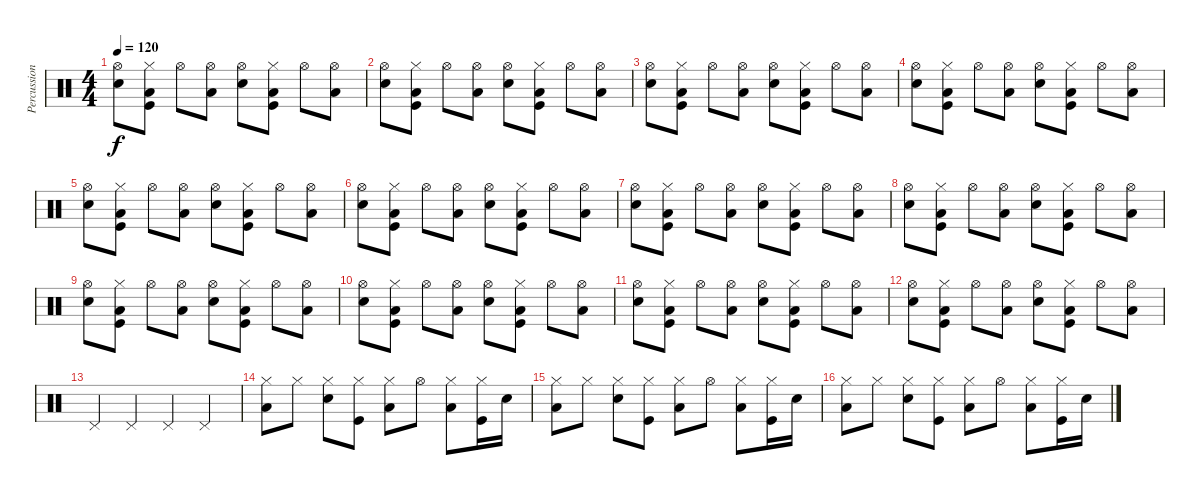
\track ("Percussion" "Percussion") {instrument percussion}
\staff {score}
\articulation defaults
\ts (4 4)
\tempo 120
\clef neutral
\ks c
("Hi-Hat (open)" "Snare (hit) 2").8{dy f} ("Hi-Hat (closed)" "Low Floor Tom (hit)" "Kick (hit)").8 "Hi-Hat (open)".8 ("Hi-Hat (open)" "Low Floor Tom (hit)").8 ("Hi-Hat (open)" "Snare (hit) 2").8 ("Hi-Hat (closed)" "Low Floor Tom (hit)" "Kick (hit)").8 "Hi-Hat (open)".8 ("Hi-Hat (open)" "Low Floor Tom (hit)").8 |
("Hi-Hat (open)" "Snare (hit) 2").8 ("Hi-Hat (closed)" "Low Floor Tom (hit)" "Kick (hit)").8 "Hi-Hat (open)".8 ("Hi-Hat (open)" "Low Floor Tom (hit)").8 ("Hi-Hat (open)" "Snare (hit) 2").8 ("Hi-Hat (closed)" "Low Floor Tom (hit)" "Kick (hit)").8 "Hi-Hat (open)".8 ("Hi-Hat (open)" "Low Floor Tom (hit)").8 |
("Hi-Hat (open)" "Snare (hit) 2").8 ("Hi-Hat (closed)" "Low Floor Tom (hit)" "Kick (hit)").8 "Hi-Hat (open)".8 ("Hi-Hat (open)" "Low Floor Tom (hit)").8 ("Hi-Hat (open)" "Snare (hit) 2").8 ("Hi-Hat (closed)" "Low Floor Tom (hit)" "Kick (hit)").8 "Hi-Hat (open)".8 ("Hi-Hat (open)" "Low Floor Tom (hit)").8 |
("Hi-Hat (open)" "Snare (hit) 2").8 ("Hi-Hat (closed)" "Low Floor Tom (hit)" "Kick (hit)").8 "Hi-Hat (open)".8 ("Hi-Hat (open)" "Low Floor Tom (hit)").8 ("Hi-Hat (open)" "Snare (hit) 2").8 ("Hi-Hat (closed)" "Low Floor Tom (hit)" "Kick (hit)").8 "Hi-Hat (open)".8 ("Hi-Hat (open)" "Low Floor Tom (hit)").8 |
("Hi-Hat (open)" "Snare (hit) 2").8 ("Hi-Hat (closed)" "Low Floor Tom (hit)" "Kick (hit)").8 "Hi-Hat (open)".8 ("Hi-Hat (open)" "Low Floor Tom (hit)").8 ("Hi-Hat (open)" "Snare (hit) 2").8 ("Hi-Hat (closed)" "Low Floor Tom (hit)" "Kick (hit)").8 "Hi-Hat (open)".8 ("Hi-Hat (open)" "Low Floor Tom (hit)").8 |
("Hi-Hat (open)" "Snare (hit) 2").8 ("Hi-Hat (closed)" "Low Floor Tom (hit)" "Kick (hit)").8 "Hi-Hat (open)".8 ("Hi-Hat (open)" "Low Floor Tom (hit)").8 ("Hi-Hat (open)" "Snare (hit) 2").8 ("Hi-Hat (closed)" "Low Floor Tom (hit)" "Kick (hit)").8 "Hi-Hat (open)".8 ("Hi-Hat (open)" "Low Floor Tom (hit)").8 |
("Hi-Hat (open)" "Snare (hit) 2").8 ("Hi-Hat (closed)" "Low Floor Tom (hit)" "Kick (hit)").8 "Hi-Hat (open)".8 ("Hi-Hat (open)" "Low Floor Tom (hit)").8 ("Hi-Hat (open)" "Snare (hit) 2").8 ("Hi-Hat (closed)" "Low Floor Tom (hit)" "Kick (hit)").8 "Hi-Hat (open)".8 ("Hi-Hat (open)" "Low Floor Tom (hit)").8 |
("Hi-Hat (open)" "Snare (hit) 2").8 ("Hi-Hat (closed)" "Low Floor Tom (hit)" "Kick (hit)").8 "Hi-Hat (open)".8 ("Hi-Hat (open)" "Low Floor Tom (hit)").8 ("Hi-Hat (open)" "Snare (hit) 2").8 ("Hi-Hat (closed)" "Low Floor Tom (hit)" "Kick (hit)").8 "Hi-Hat (open)".8 ("Hi-Hat (open)" "Low Floor Tom (hit)").8 |
("Hi-Hat (open)" "Snare (hit) 2").8 ("Hi-Hat (closed)" "Low Floor Tom (hit)" "Kick (hit)").8 "Hi-Hat (open)".8 ("Hi-Hat (open)" "Low Floor Tom (hit)").8 ("Hi-Hat (open)" "Snare (hit) 2").8 ("Hi-Hat (closed)" "Low Floor Tom (hit)" "Kick (hit)").8 "Hi-Hat (open)".8 ("Hi-Hat (open)" "Low Floor Tom (hit)").8 |
("Hi-Hat (open)" "Snare (hit) 2").8 ("Hi-Hat (closed)" "Low Floor Tom (hit)" "Kick (hit)").8 "Hi-Hat (open)".8 ("Hi-Hat (open)" "Low Floor Tom (hit)").8 ("Hi-Hat (open)" "Snare (hit) 2").8 ("Hi-Hat (closed)" "Low Floor Tom (hit)" "Kick (hit)").8 "Hi-Hat (open)".8 ("Hi-Hat (open)" "Low Floor Tom (hit)").8 |
("Hi-Hat (open)" "Snare (hit) 2").8 ("Hi-Hat (closed)" "Low Floor Tom (hit)" "Kick (hit)").8 "Hi-Hat (open)".8 ("Hi-Hat (open)" "Low Floor Tom (hit)").8 ("Hi-Hat (open)" "Snare (hit) 2").8 ("Hi-Hat (closed)" "Low Floor Tom (hit)" "Kick (hit)").8 "Hi-Hat (open)".8 ("Hi-Hat (open)" "Low Floor Tom (hit)").8 |
("Hi-Hat (open)" "Snare (hit) 2").8 ("Hi-Hat (closed)" "Low Floor Tom (hit)" "Kick (hit)").8 "Hi-Hat (open)".8 ("Hi-Hat (open)" "Low Floor Tom (hit)").8 ("Hi-Hat (open)" "Snare (hit) 2").8 ("Hi-Hat (closed)" "Low Floor Tom (hit)" "Kick (hit)").8 "Hi-Hat (open)".8 ("Hi-Hat (open)" "Low Floor Tom (hit)").8 |
"Pedal Hi-Hat (hit)".4 "Pedal Hi-Hat (hit)".4 "Pedal Hi-Hat (hit)".4 "Pedal Hi-Hat (hit)".4 |
("Hi-Hat (closed)" "Low Tom (hit)").8 "Hi-Hat (closed)".8 ("Hi-Hat (closed)" "Snare (hit) 2").8 ("Hi-Hat (closed)" "Kick (hit)").8 ("Hi-Hat (closed)" "Low Tom (hit)").8 "Hi-Hat (open)".8 ("Hi-Hat (closed)" "Low Tom (hit)").8 ("Hi-Hat (closed)" "Kick (hit)").16 "Snare (hit) 2".16 |
("Hi-Hat (closed)" "Low Tom (hit)").8 "Hi-Hat (closed)".8 ("Hi-Hat (closed)" "Snare (hit) 2").8 ("Hi-Hat (closed)" "Kick (hit)").8 ("Hi-Hat (closed)" "Low Tom (hit)").8 "Hi-Hat (open)".8 ("Hi-Hat (closed)" "Low Tom (hit)").8 ("Hi-Hat (closed)" "Kick (hit)").16 "Snare (hit) 2".16 |
("Hi-Hat (closed)" "Low Tom (hit)").8 "Hi-Hat (closed)".8 ("Hi-Hat (closed)" "Snare (hit) 2").8 ("Hi-Hat (closed)" "Kick (hit)").8 ("Hi-Hat (closed)" "Low Tom (hit)").8 "Hi-Hat (open)".8 ("Hi-Hat (closed)" "Low Tom (hit)").8 ("Hi-Hat (closed)" "Kick (hit)").16 "Snare (hit) 2".16
